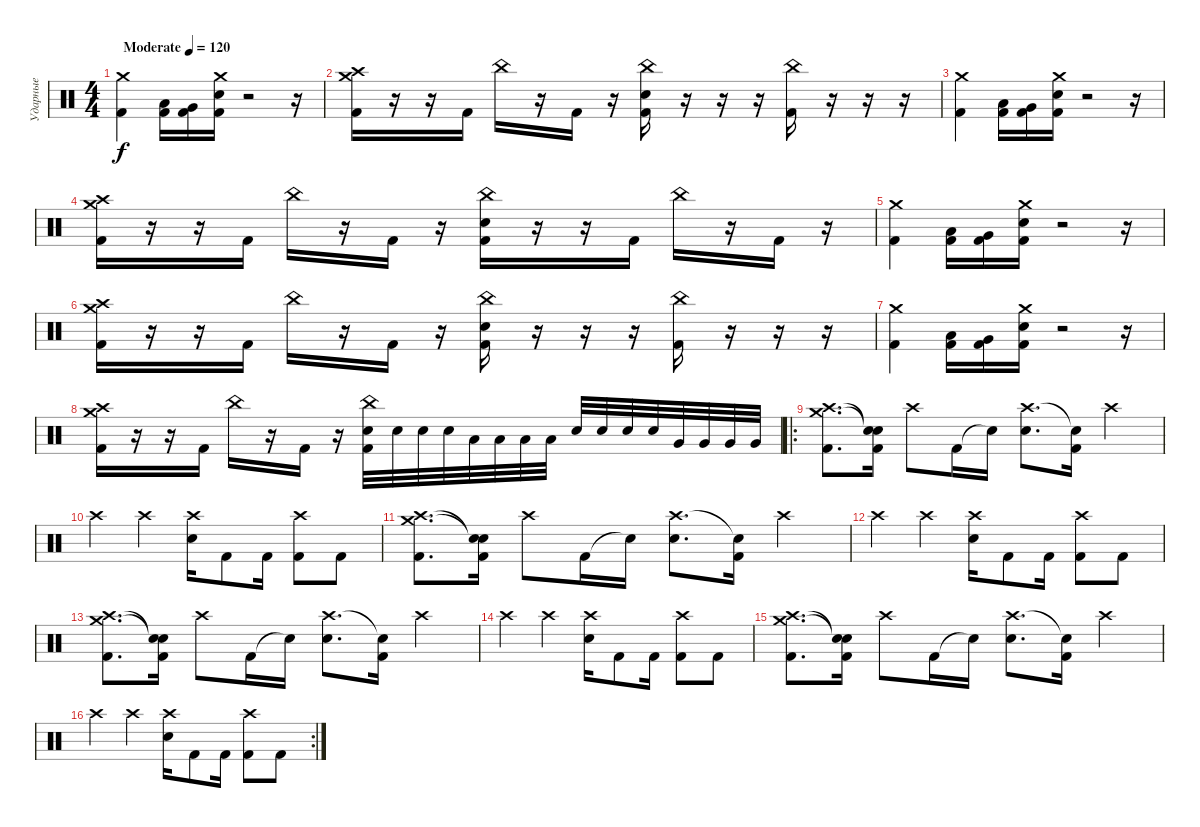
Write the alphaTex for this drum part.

\track ("Ударные" "Ударные") {instrument percussion}
\staff {score}
\articulation defaults
\ts (4 4)
\tempo (120 "Moderate")
\clef neutral
\ks c
("Crash medium (hit)" "Kick (hit) 2").4{dy f} ("Low Tom (hit)" "Kick (hit) 2").16 ("Very Low Tom (hit)" "Kick (hit) 2").16 ("Crash medium (hit)" "Electric Snare (hit)" "Kick (hit) 2").16 r.2 r.16 |
("Crash medium (hit)" "Crash high (hit)" "Kick (hit) 2").16 r.16 r.16 "Kick (hit) 2".16 "China (hit)".16 r.16 "Kick (hit) 2".16 r.16 ("China (hit)" "Electric Snare (hit)" "Kick (hit) 2").16 r.16 r.16 r.16 ("China (hit)" "Kick (hit) 2").16 r.16 r.16 r.16 |
("Crash medium (hit)" "Kick (hit) 2").4 ("Low Tom (hit)" "Kick (hit) 2").16 ("Very Low Tom (hit)" "Kick (hit) 2").16 ("Crash medium (hit)" "Electric Snare (hit)" "Kick (hit) 2").16 r.2 r.16 |
("Crash medium (hit)" "Crash high (hit)" "Kick (hit) 2").16 r.16 r.16 "Kick (hit) 2".16 "China (hit)".16 r.16 "Kick (hit) 2".16 r.16 ("China (hit)" "Electric Snare (hit)" "Kick (hit) 2").16 r.16 r.16 "Kick (hit) 2".16 "China (hit)".16 r.16 "Kick (hit) 2".16 r.16 |
("Crash medium (hit)" "Kick (hit) 2").4 ("Low Tom (hit)" "Kick (hit) 2").16 ("Very Low Tom (hit)" "Kick (hit) 2").16 ("Crash medium (hit)" "Electric Snare (hit)" "Kick (hit) 2").16 r.2 r.16 |
("Crash medium (hit)" "Crash high (hit)" "Kick (hit) 2").16 r.16 r.16 "Kick (hit) 2".16 "China (hit)".16 r.16 "Kick (hit) 2".16 r.16 ("China (hit)" "Electric Snare (hit)" "Kick (hit) 2").16 r.16 r.16 r.16 ("China (hit)" "Kick (hit) 2").16 r.16 r.16 r.16 |
("Crash medium (hit)" "Kick (hit) 2").4 ("Low Tom (hit)" "Kick (hit) 2").16 ("Very Low Tom (hit)" "Kick (hit) 2").16 ("Crash medium (hit)" "Electric Snare (hit)" "Kick (hit) 2").16 r.2 r.16 |
("Crash medium (hit)" "Crash high (hit)" "Kick (hit) 2").16 r.16 r.16 "Kick (hit) 2".16 "China (hit)".16 r.16 "Kick (hit) 2".16 r.16 ("China (hit)" "Electric Snare (hit)" "Kick (hit) 2").32 "Electric Snare (hit)".32 "Electric Snare (hit)".32 "Electric Snare (hit)".32 "Low Tom (hit)".32 "Low Tom (hit)".32 "Low Tom (hit)".32 "Low Tom (hit)".32 "Electric Snare (hit)".32 "Electric Snare (hit)".32 "Electric Snare (hit)".32 "Electric Snare (hit)".32 "Very Low Tom (hit)".32 "Very Low Tom (hit)".32 "Very Low Tom (hit)".32 "Very Low Tom (hit)".32 |
\ro
("Crash medium (hit)" "Crash high (hit)" "Kick (hit) 2").8{d} ("Snare (hit)"{t} "Snare (hit)"{t} "Kick (hit) 2").16 "Crash high (hit)".8 "Kick (hit) 2".16 "Snare (hit)"{t}.16 ("Crash high (hit)" "Electric Snare (hit)").8{d} ("Snare (hit)"{t} "Kick (hit) 2").16 "Crash high (hit)".4 |
"Crash high (hit)".4 "Crash high (hit)".4 ("Crash high (hit)" "Electric Snare (hit)").16 "Kick (hit) 2".8 "Kick (hit) 2".16 ("Crash high (hit)" "Kick (hit) 2").8 "Kick (hit) 2".8 |
("Crash medium (hit)" "Crash high (hit)" "Kick (hit) 2").8{d} ("Snare (hit)"{t} "Snare (hit)"{t} "Kick (hit) 2").16 "Crash high (hit)".8 "Kick (hit) 2".16 "Snare (hit)"{t}.16 ("Crash high (hit)" "Electric Snare (hit)").8{d} ("Snare (hit)"{t} "Kick (hit) 2").16 "Crash high (hit)".4 |
"Crash high (hit)".4 "Crash high (hit)".4 ("Crash high (hit)" "Electric Snare (hit)").16 "Kick (hit) 2".8 "Kick (hit) 2".16 ("Crash high (hit)" "Kick (hit) 2").8 "Kick (hit) 2".8 |
("Crash medium (hit)" "Crash high (hit)" "Kick (hit) 2").8{d} ("Snare (hit)"{t} "Snare (hit)"{t} "Kick (hit) 2").16 "Crash high (hit)".8 "Kick (hit) 2".16 "Snare (hit)"{t}.16 ("Crash high (hit)" "Electric Snare (hit)").8{d} ("Snare (hit)"{t} "Kick (hit) 2").16 "Crash high (hit)".4 |
"Crash high (hit)".4 "Crash high (hit)".4 ("Crash high (hit)" "Electric Snare (hit)").16 "Kick (hit) 2".8 "Kick (hit) 2".16 ("Crash high (hit)" "Kick (hit) 2").8 "Kick (hit) 2".8 |
("Crash medium (hit)" "Crash high (hit)" "Kick (hit) 2").8{d} ("Snare (hit)"{t} "Snare (hit)"{t} "Kick (hit) 2").16 "Crash high (hit)".8 "Kick (hit) 2".16 "Snare (hit)"{t}.16 ("Crash high (hit)" "Electric Snare (hit)").8{d} ("Snare (hit)"{t} "Kick (hit) 2").16 "Crash high (hit)".4 |
\rc 2 "Crash high (hit)".4 "Crash high (hit)".4
("Crash high (hit)" "Electric Snare (hit)").16 "Kick (hit) 2".8 "Kick (hit) 2".16 ("Crash high (hit)" "Kick (hit) 2").8 "Kick (hit) 2".8
